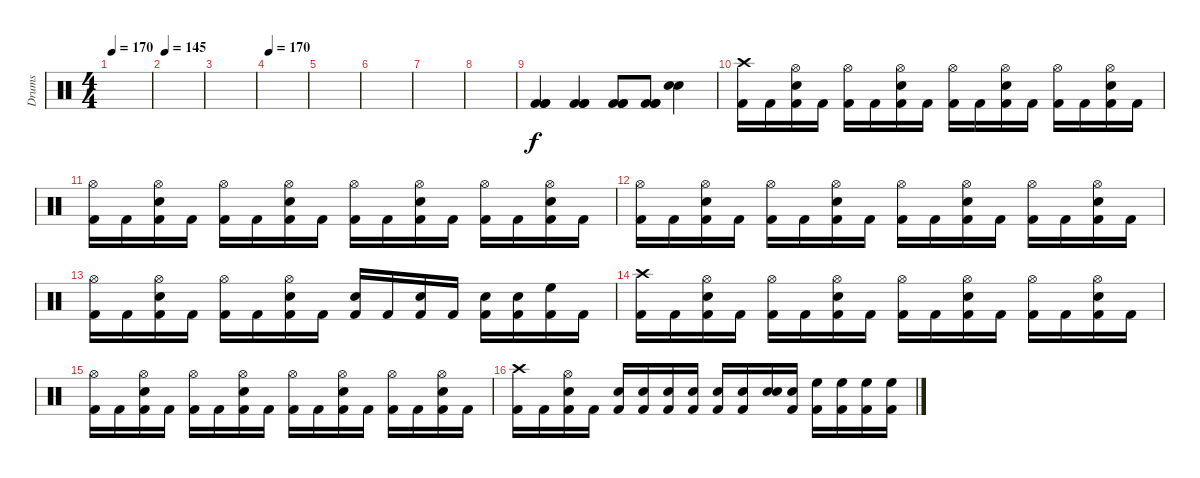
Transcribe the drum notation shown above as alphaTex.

\track ("Drums" "Drums") {instrument percussion}
\staff {score}
\articulation defaults
\ts (4 4)
\tempo 170
\clef neutral
\ks c
|
\tempo 145
|
|
\tempo 170
|
|
|
|
|
("Kick (hit) 2" "Kick (hit) 2" "Kick (hit) 2").4 ("Kick (hit) 2" "Kick (hit) 2" "Kick (hit) 2").4 ("Kick (hit) 2" "Kick (hit) 2" "Kick (hit) 2").8 ("Kick (hit) 2" "Kick (hit) 2" "Kick (hit) 2").8 ("Snare (hit) 2" "Snare (hit) 2").4 |
("Kick (hit) 2" "Crash high (hit)").16 "Kick (hit) 2".16 ("Kick (hit) 2" "Snare (hit) 2" "Hi-Hat (open)").16 "Kick (hit) 2".16 ("Kick (hit) 2" "Hi-Hat (open)").16 "Kick (hit) 2".16 ("Kick (hit) 2" "Snare (hit) 2" "Hi-Hat (open)").16 "Kick (hit) 2".16 ("Kick (hit) 2" "Hi-Hat (open)").16 "Kick (hit) 2".16 ("Kick (hit) 2" "Snare (hit) 2" "Hi-Hat (open)").16 "Kick (hit) 2".16 ("Kick (hit) 2" "Hi-Hat (open)").16 "Kick (hit) 2".16 ("Kick (hit) 2" "Snare (hit) 2" "Hi-Hat (open)").16 "Kick (hit) 2".16 |
("Hi-Hat (open)" "Kick (hit) 2").16 "Kick (hit) 2".16 ("Kick (hit) 2" "Snare (hit) 2" "Hi-Hat (open)").16 "Kick (hit) 2".16 ("Kick (hit) 2" "Hi-Hat (open)").16 "Kick (hit) 2".16 ("Kick (hit) 2" "Snare (hit) 2" "Hi-Hat (open)").16 "Kick (hit) 2".16 ("Kick (hit) 2" "Hi-Hat (open)").16 "Kick (hit) 2".16 ("Kick (hit) 2" "Snare (hit) 2" "Hi-Hat (open)").16 "Kick (hit) 2".16 ("Kick (hit) 2" "Hi-Hat (open)").16 "Kick (hit) 2".16 ("Kick (hit) 2" "Snare (hit) 2" "Hi-Hat (open)").16 "Kick (hit) 2".16 |
("Hi-Hat (open)" "Kick (hit) 2").16 "Kick (hit) 2".16 ("Kick (hit) 2" "Snare (hit) 2" "Hi-Hat (open)").16 "Kick (hit) 2".16 ("Kick (hit) 2" "Hi-Hat (open)").16 "Kick (hit) 2".16 ("Kick (hit) 2" "Snare (hit) 2" "Hi-Hat (open)").16 "Kick (hit) 2".16 ("Kick (hit) 2" "Hi-Hat (open)").16 "Kick (hit) 2".16 ("Kick (hit) 2" "Snare (hit) 2" "Hi-Hat (open)").16 "Kick (hit) 2".16 ("Kick (hit) 2" "Hi-Hat (open)").16 "Kick (hit) 2".16 ("Kick (hit) 2" "Snare (hit) 2" "Hi-Hat (open)").16 "Kick (hit) 2".16 |
("Hi-Hat (open)" "Kick (hit) 2").16 "Kick (hit) 2".16 ("Kick (hit) 2" "Snare (hit) 2" "Hi-Hat (open)").16 "Kick (hit) 2".16 ("Kick (hit) 2" "Hi-Hat (open)").16 "Kick (hit) 2".16 ("Kick (hit) 2" "Snare (hit) 2" "Hi-Hat (open)").16 "Kick (hit) 2".16 ("Snare (hit) 2" "Kick (hit) 2").16 "Kick (hit) 2".16 ("Snare (hit) 2" "Kick (hit) 2").16 "Kick (hit) 2".16 ("Snare (hit) 2" "Kick (hit) 2").16 ("Snare (hit) 2" "Kick (hit) 2").16 ("High Floor Tom (hit)" "Kick (hit) 2").16 "Kick (hit) 2".16 |
("Kick (hit) 2" "Crash high (hit)").16 "Kick (hit) 2".16 ("Kick (hit) 2" "Snare (hit) 2" "Hi-Hat (open)").16 "Kick (hit) 2".16 ("Kick (hit) 2" "Hi-Hat (open)").16 "Kick (hit) 2".16 ("Kick (hit) 2" "Snare (hit) 2" "Hi-Hat (open)").16 "Kick (hit) 2".16 ("Kick (hit) 2" "Hi-Hat (open)").16 "Kick (hit) 2".16 ("Kick (hit) 2" "Snare (hit) 2" "Hi-Hat (open)").16 "Kick (hit) 2".16 ("Kick (hit) 2" "Hi-Hat (open)").16 "Kick (hit) 2".16 ("Kick (hit) 2" "Snare (hit) 2" "Hi-Hat (open)").16 "Kick (hit) 2".16 |
("Hi-Hat (open)" "Kick (hit) 2").16 "Kick (hit) 2".16 ("Kick (hit) 2" "Snare (hit) 2" "Hi-Hat (open)").16 "Kick (hit) 2".16 ("Kick (hit) 2" "Hi-Hat (open)").16 "Kick (hit) 2".16 ("Kick (hit) 2" "Snare (hit) 2" "Hi-Hat (open)").16 "Kick (hit) 2".16 ("Kick (hit) 2" "Hi-Hat (open)").16 "Kick (hit) 2".16 ("Kick (hit) 2" "Snare (hit) 2" "Hi-Hat (open)").16 "Kick (hit) 2".16 ("Kick (hit) 2" "Hi-Hat (open)").16 "Kick (hit) 2".16 ("Kick (hit) 2" "Snare (hit) 2" "Hi-Hat (open)").16 "Kick (hit) 2".16 |
("Crash high (hit)" "Kick (hit) 2").16 "Kick (hit) 2".16 ("Snare (hit) 2" "Kick (hit) 2" "Hi-Hat (open)").16 "Kick (hit) 2".16 ("Snare (hit) 2" "Kick (hit) 2").16 ("Kick (hit) 2" "Snare (hit) 2").16 ("Snare (hit) 2" "Kick (hit) 2").16 ("Snare (hit) 2" "Kick (hit) 2").16 ("Snare (hit) 2" "Kick (hit) 2").16 ("Snare (hit) 2" "Kick (hit) 2").16 ("Snare (hit) 2" "Snare (hit) 2").16 ("Snare (hit) 2" "Kick (hit) 2").16 ("High Floor Tom (hit)" "Kick (hit) 2").16 ("High Floor Tom (hit)" "Kick (hit) 2").16 ("High Floor Tom (hit)" "Kick (hit) 2").16 ("High Floor Tom (hit)" "Kick (hit) 2").16
